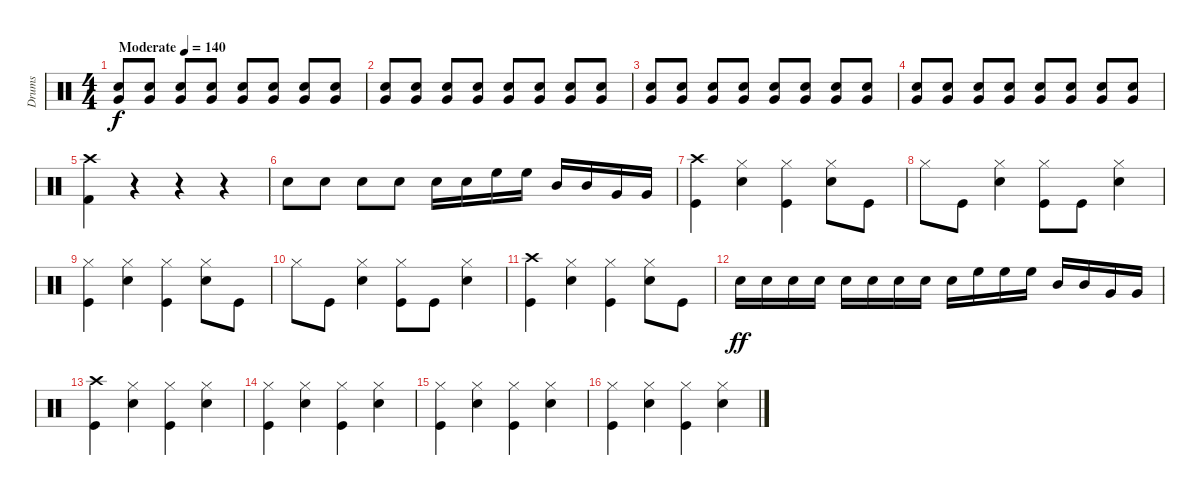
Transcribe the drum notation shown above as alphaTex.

\track ("Drums" "Drums") {instrument percussion}
\staff {score}
\articulation defaults
\ts (4 4)
\tempo (140 "Moderate")
\clef neutral
\ks c
("Snare (hit) 2" "Very Low Tom (hit)").8{dy f} ("Snare (hit) 2" "Very Low Tom (hit)").8 ("Snare (hit) 2" "Very Low Tom (hit)").8 ("Snare (hit) 2" "Very Low Tom (hit)").8 ("Snare (hit) 2" "Very Low Tom (hit)").8 ("Snare (hit) 2" "Very Low Tom (hit)").8 ("Snare (hit) 2" "Very Low Tom (hit)").8 ("Snare (hit) 2" "Very Low Tom (hit)").8 |
("Snare (hit) 2" "Very Low Tom (hit)").8 ("Very Low Tom (hit)" "Snare (hit) 2").8 ("Very Low Tom (hit)" "Snare (hit) 2").8 ("Very Low Tom (hit)" "Snare (hit) 2").8 ("Very Low Tom (hit)" "Snare (hit) 2").8 ("Very Low Tom (hit)" "Snare (hit) 2").8 ("Very Low Tom (hit)" "Snare (hit) 2").8 ("Very Low Tom (hit)" "Snare (hit) 2").8 |
("Snare (hit) 2" "Very Low Tom (hit)").8 ("Snare (hit) 2" "Very Low Tom (hit)").8 ("Snare (hit) 2" "Very Low Tom (hit)").8 ("Very Low Tom (hit)" "Snare (hit) 2").8 ("Very Low Tom (hit)" "Snare (hit) 2").8 ("Very Low Tom (hit)" "Snare (hit) 2").8 ("Very Low Tom (hit)" "Snare (hit) 2").8 ("Very Low Tom (hit)" "Snare (hit) 2").8 |
("Snare (hit) 2" "Very Low Tom (hit)").8 ("Snare (hit) 2" "Very Low Tom (hit)").8 ("Snare (hit) 2" "Very Low Tom (hit)").8 ("Snare (hit) 2" "Very Low Tom (hit)").8 ("Snare (hit) 2" "Very Low Tom (hit)").8 ("Snare (hit) 2" "Very Low Tom (hit)").8 ("Snare (hit) 2" "Very Low Tom (hit)").8 ("Snare (hit) 2" "Very Low Tom (hit)").8 |
("Crash high (hit)" "Kick (hit) 2").4 r.4 r.4 r.4 |
"Snare (hit) 2".8 "Snare (hit) 2".8 "Snare (hit) 2".8 "Snare (hit) 2".8 "Snare (hit) 2".16 "Snare (hit) 2".16 "High Floor Tom (hit)".16 "High Floor Tom (hit)".16 "Mid Tom (hit)".16 "Mid Tom (hit)".16 "Very Low Tom (hit)".16 "Very Low Tom (hit)".16 |
("Crash high (hit)" "Kick (hit)").4 ("Snare (hit) 2" "Hi-Hat (closed)").4 ("Hi-Hat (closed)" "Kick (hit)").4 ("Snare (hit) 2" "Hi-Hat (closed)").8 "Kick (hit)".8 |
"Hi-Hat (closed)".8 "Kick (hit)".8 ("Snare (hit) 2" "Hi-Hat (closed)").4 ("Hi-Hat (closed)" "Kick (hit)").8 "Kick (hit)".8 ("Snare (hit) 2" "Hi-Hat (closed)").4 |
("Hi-Hat (closed)" "Kick (hit)").4 ("Snare (hit) 2" "Hi-Hat (closed)").4 ("Kick (hit)" "Hi-Hat (closed)").4 ("Snare (hit) 2" "Hi-Hat (closed)").8 "Kick (hit)".8 |
"Hi-Hat (closed)".8 "Kick (hit)".8 ("Snare (hit) 2" "Hi-Hat (closed)").4 ("Kick (hit)" "Hi-Hat (closed)").8 "Kick (hit)".8 ("Snare (hit) 2" "Hi-Hat (closed)").4 |
("Crash high (hit)" "Kick (hit)").4 ("Snare (hit) 2" "Hi-Hat (closed)").4 ("Hi-Hat (closed)" "Kick (hit)").4 ("Snare (hit) 2" "Hi-Hat (closed)").8 "Kick (hit)".8 |
"Snare (hit) 2".16{dy ff} "Snare (hit) 2".16 "Snare (hit) 2".16 "Snare (hit) 2".16 "Snare (hit) 2".16 "Snare (hit) 2".16 "Snare (hit) 2".16 "Snare (hit) 2".16 "Snare (hit) 2".16 "High Floor Tom (hit)".16 "High Floor Tom (hit)".16 "High Floor Tom (hit)".16 "Mid Tom (hit)".16 "Mid Tom (hit)".16 "Very Low Tom (hit)".16 "Very Low Tom (hit)".16 |
("Crash high (hit)" "Kick (hit)").4 ("Hi-Hat (closed)" "Snare (hit) 2").4 ("Kick (hit)" "Hi-Hat (closed)").4 ("Hi-Hat (closed)" "Snare (hit) 2").4 |
("Kick (hit)" "Hi-Hat (closed)").4 ("Hi-Hat (closed)" "Snare (hit) 2").4 ("Kick (hit)" "Hi-Hat (closed)").4 ("Hi-Hat (closed)" "Snare (hit) 2").4 |
("Kick (hit)" "Hi-Hat (closed)").4 ("Hi-Hat (closed)" "Snare (hit) 2").4 ("Kick (hit)" "Hi-Hat (closed)").4 ("Hi-Hat (closed)" "Snare (hit) 2").4 |
("Kick (hit)" "Hi-Hat (closed)").4 ("Snare (hit) 2" "Hi-Hat (closed)").4 ("Kick (hit)" "Hi-Hat (closed)").4 ("Hi-Hat (closed)" "Snare (hit) 2").4
